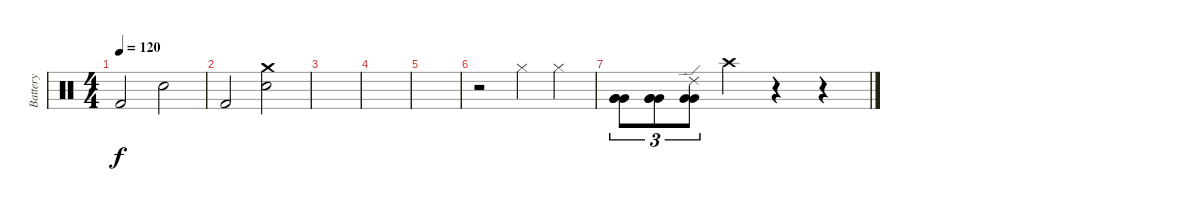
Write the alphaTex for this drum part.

\track ("Battery" "Battery") {instrument percussion}
\staff {score}
\articulation defaults
\ts (4 4)
\tempo 120
\clef neutral
\ks c "Kick (hit) 2".2{dy f} "Snare (hit) 2".2
|
"Kick (hit) 2".2 ("Snare (hit) 2" "Crash medium (hit)").2 |
|
|
|
r.2 "Hi-Hat (closed)".4 "Hi-Hat (closed)".4 |
("Very Low Tom (hit)" "Very Low Tom (hit)" "Very Low Tom (hit)").8{tu (3 2)} ("Very Low Tom (hit)" "Very Low Tom (hit)" "Very Low Tom (hit)").8{tu (3 2)} ("Ride (edge) 2" "Very Low Tom (hit)" "Very Low Tom (hit)").8{tu (3 2)} "Crash high (hit)".4 r.4 r.4
